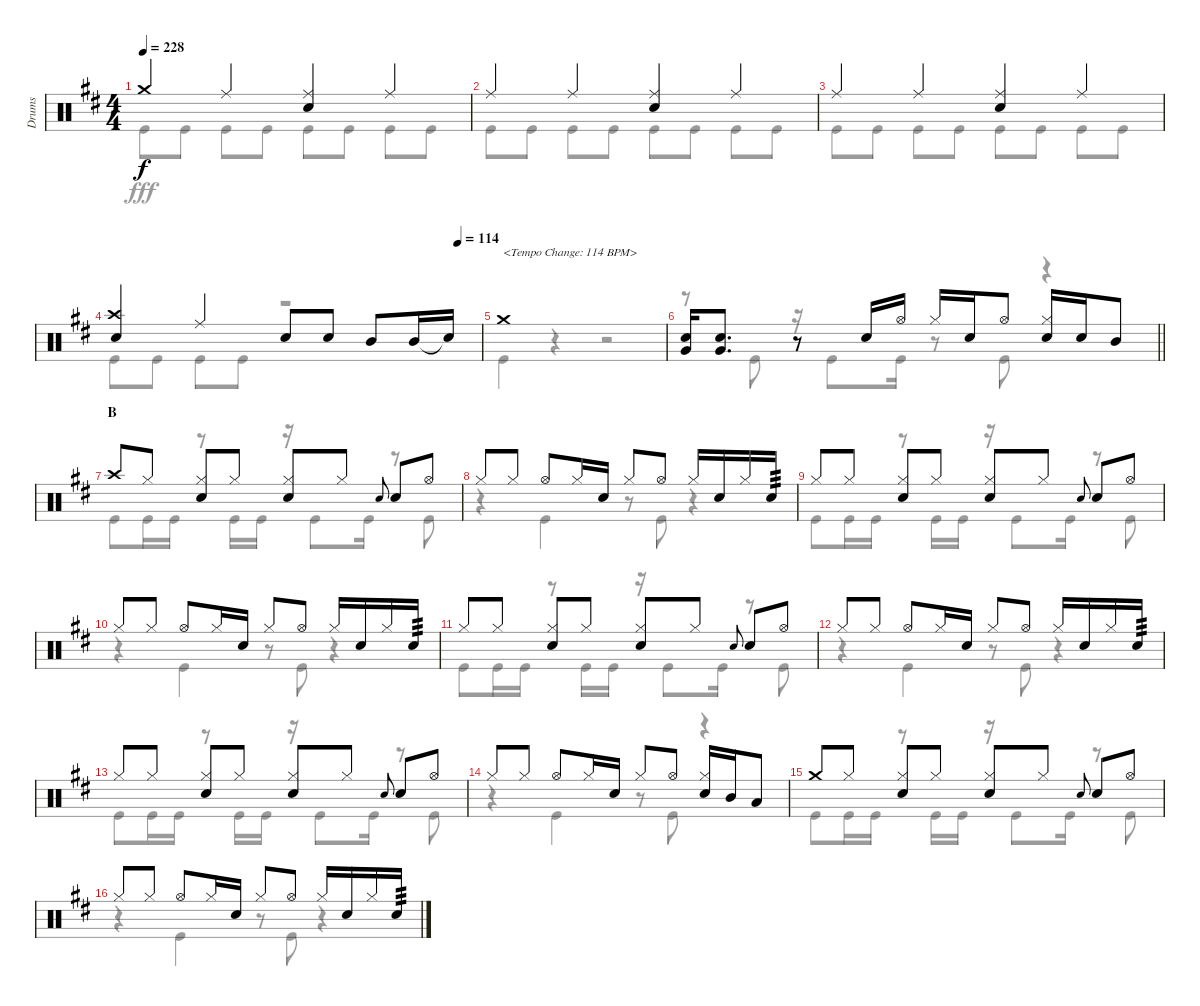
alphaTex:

\track ("Drums" "Drums") {instrument percussion}
\staff {score}
\articulation defaults
\voice
\ts (4 4)
\tempo 228
\clef neutral
\ks d "Crash medium (hit)".4{dy f} "Ride (middle)".4
("Ride (middle)" "Snare (hit) 2").4 "Ride (middle)".4 |
"Ride (middle)".4 "Ride (middle)".4 ("Ride (middle)" "Snare (hit) 2").4 "Ride (middle)".4 |
"Ride (middle)".4 "Ride (middle)".4 ("Ride (middle)" "Snare (hit) 2").4 "Ride (middle)".4 |
\tempo (114 0.9375)
("Crash high (hit)" "Snare (hit) 2").4 "Ride (middle)".4 "Snare (hit) 2".8 "Snare (hit) 2".8 "Mid Tom (hit)".8 "Mid Tom (hit)".16 "Snare (hit)"{t}.16 |
"Crash medium (hit)".1{txt "<Tempo Change: 114 BPM>"} |
\barLineRight lightlight
("Snare (hit) 2" "Very Low Tom (hit)").16 ("Snare (hit) 2" "Very Low Tom (hit)").8{d} r.8 "Snare (hit) 2".16 "Hi-Hat (open)".16 "Hi-Hat (closed)".16 "Snare (hit) 2".16 "Hi-Hat (open)".8 ("Hi-Hat (closed)" "Snare (hit) 2").16 "Snare (hit) 2".16 "Mid Tom (hit)".8 |
\section ("" "B")
"Crash high (hit)".8 "Hi-Hat (closed)".8 ("Hi-Hat (closed)" "Snare (hit) 2").8 "Hi-Hat (closed)".8 ("Hi-Hat (closed)" "Snare (hit) 2").8 "Hi-Hat (closed)".8 "Snare (hit) 2".8{gr onbeat} "Snare (hit) 2".8 "Hi-Hat (open)".8 |
"Hi-Hat (closed)".8 "Hi-Hat (closed)".8 "Hi-Hat (open)".8 "Hi-Hat (closed)".16 "Snare (hit) 2".16 "Hi-Hat (closed)".8 "Hi-Hat (open)".8 "Hi-Hat (closed)".16 "Snare (hit) 2".16 "Hi-Hat (closed)".16 "Snare (hit) 2".16{tp 3} |
"Hi-Hat (closed)".8 "Hi-Hat (closed)".8 ("Hi-Hat (closed)" "Snare (hit) 2").8 "Hi-Hat (closed)".8 ("Hi-Hat (closed)" "Snare (hit) 2").8 "Hi-Hat (closed)".8 "Snare (hit) 2".8{gr onbeat} "Snare (hit) 2".8 "Hi-Hat (open)".8 |
"Hi-Hat (closed)".8 "Hi-Hat (closed)".8 "Hi-Hat (open)".8 "Hi-Hat (closed)".16 "Snare (hit) 2".16 "Hi-Hat (closed)".8 "Hi-Hat (open)".8 "Hi-Hat (closed)".16 "Snare (hit) 2".16 "Hi-Hat (closed)".16 "Snare (hit) 2".16{tp 3} |
"Hi-Hat (closed)".8 "Hi-Hat (closed)".8 ("Hi-Hat (closed)" "Snare (hit) 2").8 "Hi-Hat (closed)".8 ("Hi-Hat (closed)" "Snare (hit) 2").8 "Hi-Hat (closed)".8 "Snare (hit) 2".8{gr onbeat} "Snare (hit) 2".8 "Hi-Hat (open)".8 |
"Hi-Hat (closed)".8 "Hi-Hat (closed)".8 "Hi-Hat (open)".8 "Hi-Hat (closed)".16 "Snare (hit) 2".16 "Hi-Hat (closed)".8 "Hi-Hat (open)".8 "Hi-Hat (closed)".16 "Snare (hit) 2".16 "Hi-Hat (closed)".16 "Snare (hit) 2".16{tp 3} |
"Hi-Hat (closed)".8 "Hi-Hat (closed)".8 ("Hi-Hat (closed)" "Snare (hit) 2").8 "Hi-Hat (closed)".8 ("Hi-Hat (closed)" "Snare (hit) 2").8 "Hi-Hat (closed)".8 "Snare (hit) 2".8{gr onbeat} "Snare (hit) 2".8 "Hi-Hat (open)".8 |
"Hi-Hat (closed)".8 "Hi-Hat (closed)".8 "Hi-Hat (open)".8 "Hi-Hat (closed)".16 "Snare (hit) 2".16 "Hi-Hat (closed)".8 "Hi-Hat (open)".8 ("Hi-Hat (closed)" "Snare (hit) 2").16 "Mid Tom (hit)".16 "Low Tom (hit)".8 |
"Crash medium (hit)".8 "Hi-Hat (closed)".8 ("Hi-Hat (closed)" "Snare (hit) 2").8 "Hi-Hat (closed)".8 ("Hi-Hat (closed)" "Snare (hit) 2").8 "Hi-Hat (closed)".8 "Snare (hit) 2".8{gr onbeat} "Snare (hit) 2".8 "Hi-Hat (open)".8 |
"Hi-Hat (closed)".8 "Hi-Hat (closed)".8 "Hi-Hat (open)".8 "Hi-Hat (closed)".16 "Snare (hit) 2".16 "Hi-Hat (closed)".8 "Hi-Hat (open)".8 "Hi-Hat (closed)".16 "Snare (hit) 2".16 "Hi-Hat (closed)".16 "Snare (hit) 2".16{tp 3}
\voice
\clef neutral
\ottava regular
\simile none
\ks d "Kick (hit)".8{dy fff} "Kick (hit)".8 "Kick (hit)".8 "Kick (hit)".8 "Kick (hit)".8 "Kick (hit)".8 "Kick (hit)".8 "Kick (hit)".8
|
"Kick (hit)".8 "Kick (hit)".8 "Kick (hit)".8 "Kick (hit)".8 "Kick (hit)".8 "Kick (hit)".8 "Kick (hit)".8 "Kick (hit)".8 |
"Kick (hit)".8 "Kick (hit)".8 "Kick (hit)".8 "Kick (hit)".8 "Kick (hit)".8 "Kick (hit)".8 "Kick (hit)".8 "Kick (hit)".8 |
"Kick (hit)".8 "Kick (hit)".8 "Kick (hit)".8 "Kick (hit)".8 r.2 |
"Kick (hit)".4 r.4 r.2 |
\barLineRight lightlight
r.8 "Kick (hit)".8 r.16 "Kick (hit)".8 "Kick (hit)".16 r.8 "Kick (hit)".8 r.4 |
"Kick (hit)".8 "Kick (hit)".16 "Kick (hit)".16 r.8 "Kick (hit)".16 "Kick (hit)".16 r.16 "Kick (hit)".8 "Kick (hit)".16 r.8 "Kick (hit)".8 |
r.4 "Kick (hit)".4 r.8 "Kick (hit)".8 r.4 |
"Kick (hit)".8 "Kick (hit)".16 "Kick (hit)".16 r.8 "Kick (hit)".16 "Kick (hit)".16 r.16 "Kick (hit)".8 "Kick (hit)".16 r.8 "Kick (hit)".8 |
r.4 "Kick (hit)".4 r.8 "Kick (hit)".8 r.4 |
"Kick (hit)".8 "Kick (hit)".16 "Kick (hit)".16 r.8 "Kick (hit)".16 "Kick (hit)".16 r.16 "Kick (hit)".8 "Kick (hit)".16 r.8 "Kick (hit)".8 |
r.4 "Kick (hit)".4 r.8 "Kick (hit)".8 r.4 |
"Kick (hit)".8 "Kick (hit)".16 "Kick (hit)".16 r.8 "Kick (hit)".16 "Kick (hit)".16 r.16 "Kick (hit)".8 "Kick (hit)".16 r.8 "Kick (hit)".8 |
r.4 "Kick (hit)".4 r.8 "Kick (hit)".8 r.4 |
"Kick (hit)".8 "Kick (hit)".16 "Kick (hit)".16 r.8 "Kick (hit)".16 "Kick (hit)".16 r.16 "Kick (hit)".8 "Kick (hit)".16 r.8 "Kick (hit)".8 |
r.4 "Kick (hit)".4 r.8 "Kick (hit)".8 r.4
